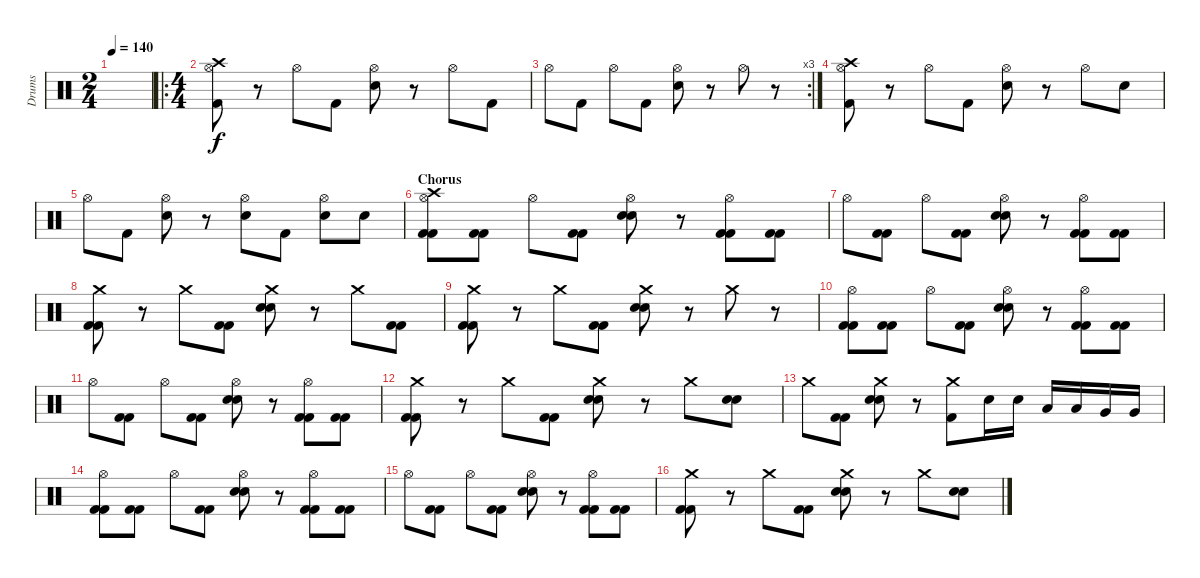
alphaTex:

\track ("Drums" "Drums") {instrument percussion}
\staff {score}
\articulation defaults
\ts (2 4)
\tempo 140
\clef neutral
\ks c
|
\ro
\ts (4 4)
("Crash high (hit)" "Hi-Hat (open)" "Kick (hit) 2").8 r.8 "Hi-Hat (open)".8 "Kick (hit) 2".8 ("Hi-Hat (open)" "Electric Snare (hit)").8 r.8 "Hi-Hat (open)".8 "Kick (hit) 2".8 |
\rc 3 "Hi-Hat (open)".8 "Kick (hit) 2".8 "Hi-Hat (open)".8 "Kick (hit) 2".8
("Hi-Hat (open)" "Electric Snare (hit)").8 r.8 "Hi-Hat (open)".8 r.8 |
("Crash high (hit)" "Hi-Hat (open)" "Kick (hit) 2").8 r.8 "Hi-Hat (open)".8 "Kick (hit) 2".8 ("Hi-Hat (open)" "Electric Snare (hit)").8 r.8 "Hi-Hat (open)".8 "Electric Snare (hit)".8 |
"Hi-Hat (open)".8 "Kick (hit) 2".8 ("Hi-Hat (open)" "Electric Snare (hit)").8 r.8 ("Hi-Hat (open)" "Electric Snare (hit)").8 "Kick (hit) 2".8 ("Hi-Hat (open)" "Electric Snare (hit)").8 "Electric Snare (hit)".8 |
\section ("" "Chorus")
("Crash high (hit)" "Hi-Hat (open)" "Kick (hit) 2" "Kick (hit) 2").8 ("Kick (hit) 2" "Kick (hit) 2").8 "Hi-Hat (open)".8 ("Kick (hit) 2" "Kick (hit) 2").8 ("Hi-Hat (open)" "Electric Snare (hit)" "Electric Snare (hit)").8 r.8 ("Hi-Hat (open)" "Kick (hit) 2" "Kick (hit) 2").8 ("Kick (hit) 2" "Kick (hit) 2").8 |
"Hi-Hat (open)".8 ("Kick (hit) 2" "Kick (hit) 2").8 "Hi-Hat (open)".8 ("Kick (hit) 2" "Kick (hit) 2").8 ("Hi-Hat (open)" "Electric Snare (hit)" "Electric Snare (hit)").8 r.8 ("Hi-Hat (open)" "Kick (hit) 2" "Kick (hit) 2").8 ("Kick (hit) 2" "Kick (hit) 2").8 |
("Crash medium (hit)" "Kick (hit) 2" "Kick (hit) 2").8 r.8 "Crash medium (hit)".8 ("Kick (hit) 2" "Kick (hit) 2").8 ("Crash medium (hit)" "Electric Snare (hit)" "Electric Snare (hit)").8 r.8 "Crash medium (hit)".8 ("Kick (hit) 2" "Kick (hit) 2").8 |
("Crash medium (hit)" "Kick (hit) 2" "Kick (hit) 2").8 r.8 "Crash medium (hit)".8 ("Kick (hit) 2" "Kick (hit) 2").8 ("Crash medium (hit)" "Electric Snare (hit)" "Electric Snare (hit)").8 r.8 "Crash medium (hit)".8 r.8 |
("Hi-Hat (open)" "Kick (hit) 2" "Kick (hit) 2").8 ("Kick (hit) 2" "Kick (hit) 2").8 "Hi-Hat (open)".8 ("Kick (hit) 2" "Kick (hit) 2").8 ("Hi-Hat (open)" "Electric Snare (hit)" "Electric Snare (hit)").8 r.8 ("Hi-Hat (open)" "Kick (hit) 2" "Kick (hit) 2").8 ("Kick (hit) 2" "Kick (hit) 2").8 |
"Hi-Hat (open)".8 ("Kick (hit) 2" "Kick (hit) 2").8 "Hi-Hat (open)".8 ("Kick (hit) 2" "Kick (hit) 2").8 ("Hi-Hat (open)" "Electric Snare (hit)" "Electric Snare (hit)").8 r.8 ("Hi-Hat (open)" "Kick (hit) 2" "Kick (hit) 2").8 ("Kick (hit) 2" "Kick (hit) 2").8 |
("Crash medium (hit)" "Kick (hit) 2" "Kick (hit) 2").8 r.8 "Crash medium (hit)".8 ("Kick (hit) 2" "Kick (hit) 2").8 ("Crash medium (hit)" "Electric Snare (hit)" "Electric Snare (hit)").8 r.8 "Crash medium (hit)".8 ("Electric Snare (hit)" "Electric Snare (hit)").8 |
"Crash medium (hit)".8 ("Kick (hit) 2" "Kick (hit) 2").8 ("Crash medium (hit)" "Electric Snare (hit)" "Electric Snare (hit)").8 r.8 ("Crash medium (hit)" "Kick (hit) 2").8 "Electric Snare (hit)".16 "Electric Snare (hit)".16 "Low Tom (hit)".16 "Low Tom (hit)".16 "Very Low Tom (hit)".16 "Very Low Tom (hit)".16 |
("Hi-Hat (open)" "Kick (hit) 2" "Kick (hit) 2").8 ("Kick (hit) 2" "Kick (hit) 2").8 "Hi-Hat (open)".8 ("Kick (hit) 2" "Kick (hit) 2").8 ("Hi-Hat (open)" "Electric Snare (hit)" "Electric Snare (hit)").8 r.8 ("Hi-Hat (open)" "Kick (hit) 2" "Kick (hit) 2").8 ("Kick (hit) 2" "Kick (hit) 2").8 |
"Hi-Hat (open)".8 ("Kick (hit) 2" "Kick (hit) 2").8 "Hi-Hat (open)".8 ("Kick (hit) 2" "Kick (hit) 2").8 ("Hi-Hat (open)" "Electric Snare (hit)" "Electric Snare (hit)").8 r.8 ("Hi-Hat (open)" "Kick (hit) 2" "Kick (hit) 2").8 ("Kick (hit) 2" "Kick (hit) 2").8 |
("Crash medium (hit)" "Kick (hit) 2" "Kick (hit) 2").8 r.8 "Crash medium (hit)".8 ("Kick (hit) 2" "Kick (hit) 2").8 ("Crash medium (hit)" "Electric Snare (hit)" "Electric Snare (hit)").8 r.8 "Crash medium (hit)".8 ("Electric Snare (hit)" "Electric Snare (hit)").8
